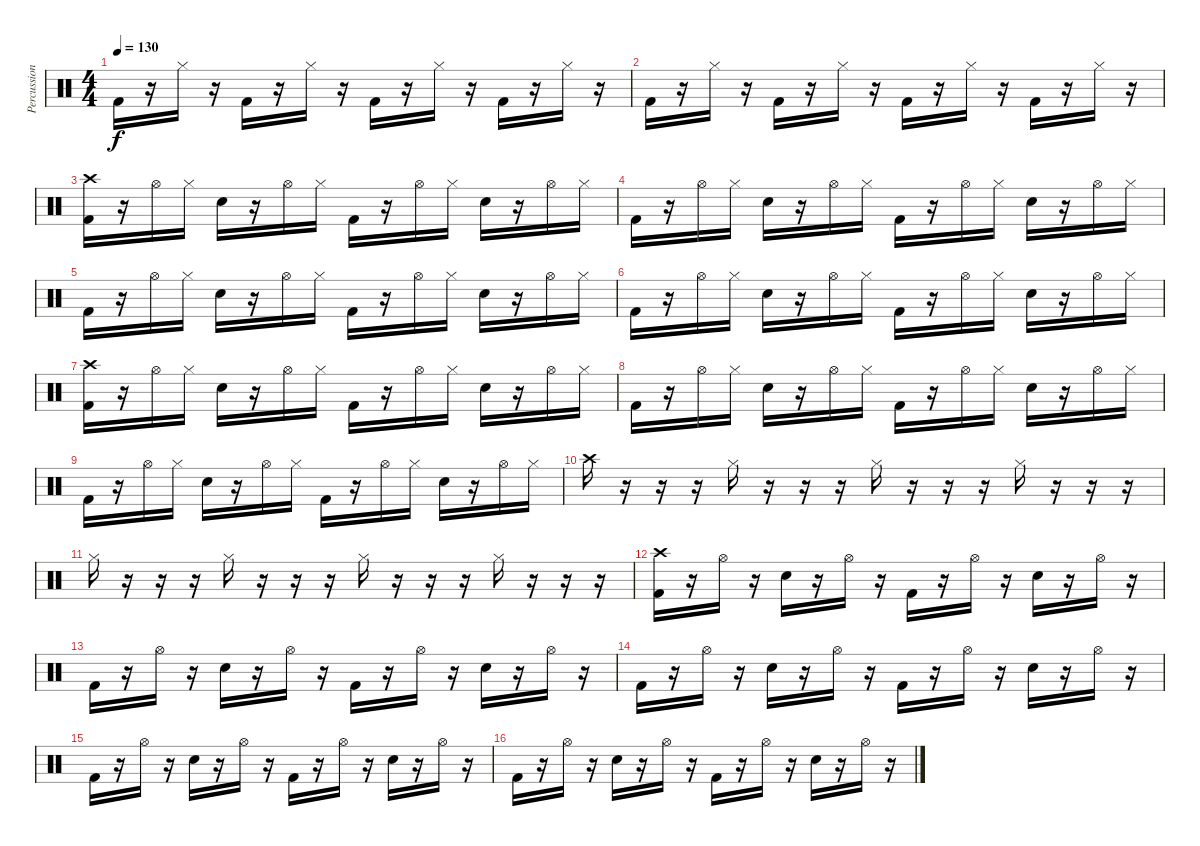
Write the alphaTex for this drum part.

\track ("Percussion" "Percussion") {instrument percussion}
\staff {score}
\articulation defaults
\ts (4 4)
\tempo 130
\clef neutral
\ks c "Kick (hit) 2".16{dy f}
r.16 "Hi-Hat (closed)".16 r.16 "Kick (hit) 2".16 r.16 "Hi-Hat (closed)".16 r.16 "Kick (hit) 2".16 r.16 "Hi-Hat (closed)".16 r.16 "Kick (hit) 2".16 r.16 "Hi-Hat (closed)".16 r.16 |
"Kick (hit) 2".16 r.16 "Hi-Hat (closed)".16 r.16 "Kick (hit) 2".16 r.16 "Hi-Hat (closed)".16 r.16 "Kick (hit) 2".16 r.16 "Hi-Hat (closed)".16 r.16 "Kick (hit) 2".16 r.16 "Hi-Hat (closed)".16 r.16 |
("Crash high (hit)" "Kick (hit) 2").16 r.16 "Hi-Hat (open)".16 "Hi-Hat (closed)".16 "Snare (hit) 2".16 r.16 "Hi-Hat (open)".16 "Hi-Hat (closed)".16 "Kick (hit) 2".16 r.16 "Hi-Hat (open)".16 "Hi-Hat (closed)".16 "Snare (hit) 2".16 r.16 "Hi-Hat (open)".16 "Hi-Hat (closed)".16 |
"Kick (hit) 2".16 r.16 "Hi-Hat (open)".16 "Hi-Hat (closed)".16 "Snare (hit) 2".16 r.16 "Hi-Hat (open)".16 "Hi-Hat (closed)".16 "Kick (hit) 2".16 r.16 "Hi-Hat (open)".16 "Hi-Hat (closed)".16 "Snare (hit) 2".16 r.16 "Hi-Hat (open)".16 "Hi-Hat (closed)".16 |
"Kick (hit) 2".16 r.16 "Hi-Hat (open)".16 "Hi-Hat (closed)".16 "Snare (hit) 2".16 r.16 "Hi-Hat (open)".16 "Hi-Hat (closed)".16 "Kick (hit) 2".16 r.16 "Hi-Hat (open)".16 "Hi-Hat (closed)".16 "Snare (hit) 2".16 r.16 "Hi-Hat (open)".16 "Hi-Hat (closed)".16 |
"Kick (hit) 2".16 r.16 "Hi-Hat (open)".16 "Hi-Hat (closed)".16 "Snare (hit) 2".16 r.16 "Hi-Hat (open)".16 "Hi-Hat (closed)".16 "Kick (hit) 2".16 r.16 "Hi-Hat (open)".16 "Hi-Hat (closed)".16 "Snare (hit) 2".16 r.16 "Hi-Hat (open)".16 "Hi-Hat (closed)".16 |
("Crash high (hit)" "Kick (hit) 2").16 r.16 "Hi-Hat (open)".16 "Hi-Hat (closed)".16 "Snare (hit) 2".16 r.16 "Hi-Hat (open)".16 "Hi-Hat (closed)".16 "Kick (hit) 2".16 r.16 "Hi-Hat (open)".16 "Hi-Hat (closed)".16 "Snare (hit) 2".16 r.16 "Hi-Hat (open)".16 "Hi-Hat (closed)".16 |
"Kick (hit) 2".16 r.16 "Hi-Hat (open)".16 "Hi-Hat (closed)".16 "Snare (hit) 2".16 r.16 "Hi-Hat (open)".16 "Hi-Hat (closed)".16 "Kick (hit) 2".16 r.16 "Hi-Hat (open)".16 "Hi-Hat (closed)".16 "Snare (hit) 2".16 r.16 "Hi-Hat (open)".16 "Hi-Hat (closed)".16 |
"Kick (hit) 2".16 r.16 "Hi-Hat (open)".16 "Hi-Hat (closed)".16 "Snare (hit) 2".16 r.16 "Hi-Hat (open)".16 "Hi-Hat (closed)".16 "Kick (hit) 2".16 r.16 "Hi-Hat (open)".16 "Hi-Hat (closed)".16 "Snare (hit) 2".16 r.16 "Hi-Hat (open)".16 "Hi-Hat (closed)".16 |
"Crash high (hit)".16 r.16 r.16 r.16 "Hi-Hat (closed)".16 r.16 r.16 r.16 "Hi-Hat (closed)".16 r.16 r.16 r.16 "Hi-Hat (closed)".16 r.16 r.16 r.16 |
"Hi-Hat (closed)".16 r.16 r.16 r.16 "Hi-Hat (closed)".16 r.16 r.16 r.16 "Hi-Hat (closed)".16 r.16 r.16 r.16 "Hi-Hat (closed)".16 r.16 r.16 r.16 |
("Crash high (hit)" "Kick (hit) 2").16 r.16 "Hi-Hat (open)".16 r.16 "Snare (hit) 2".16 r.16 "Hi-Hat (open)".16 r.16 "Kick (hit) 2".16 r.16 "Hi-Hat (open)".16 r.16 "Snare (hit) 2".16 r.16 "Hi-Hat (open)".16 r.16 |
"Kick (hit) 2".16 r.16 "Hi-Hat (open)".16 r.16 "Snare (hit) 2".16 r.16 "Hi-Hat (open)".16 r.16 "Kick (hit) 2".16 r.16 "Hi-Hat (open)".16 r.16 "Snare (hit) 2".16 r.16 "Hi-Hat (open)".16 r.16 |
"Kick (hit) 2".16 r.16 "Hi-Hat (open)".16 r.16 "Snare (hit) 2".16 r.16 "Hi-Hat (open)".16 r.16 "Kick (hit) 2".16 r.16 "Hi-Hat (open)".16 r.16 "Snare (hit) 2".16 r.16 "Hi-Hat (open)".16 r.16 |
"Kick (hit) 2".16 r.16 "Hi-Hat (open)".16 r.16 "Snare (hit) 2".16 r.16 "Hi-Hat (open)".16 r.16 "Kick (hit) 2".16 r.16 "Hi-Hat (open)".16 r.16 "Snare (hit) 2".16 r.16 "Hi-Hat (open)".16 r.16 |
"Kick (hit) 2".16 r.16 "Hi-Hat (open)".16 r.16 "Snare (hit) 2".16 r.16 "Hi-Hat (open)".16 r.16 "Kick (hit) 2".16 r.16 "Hi-Hat (open)".16 r.16 "Snare (hit) 2".16 r.16 "Hi-Hat (open)".16 r.16
